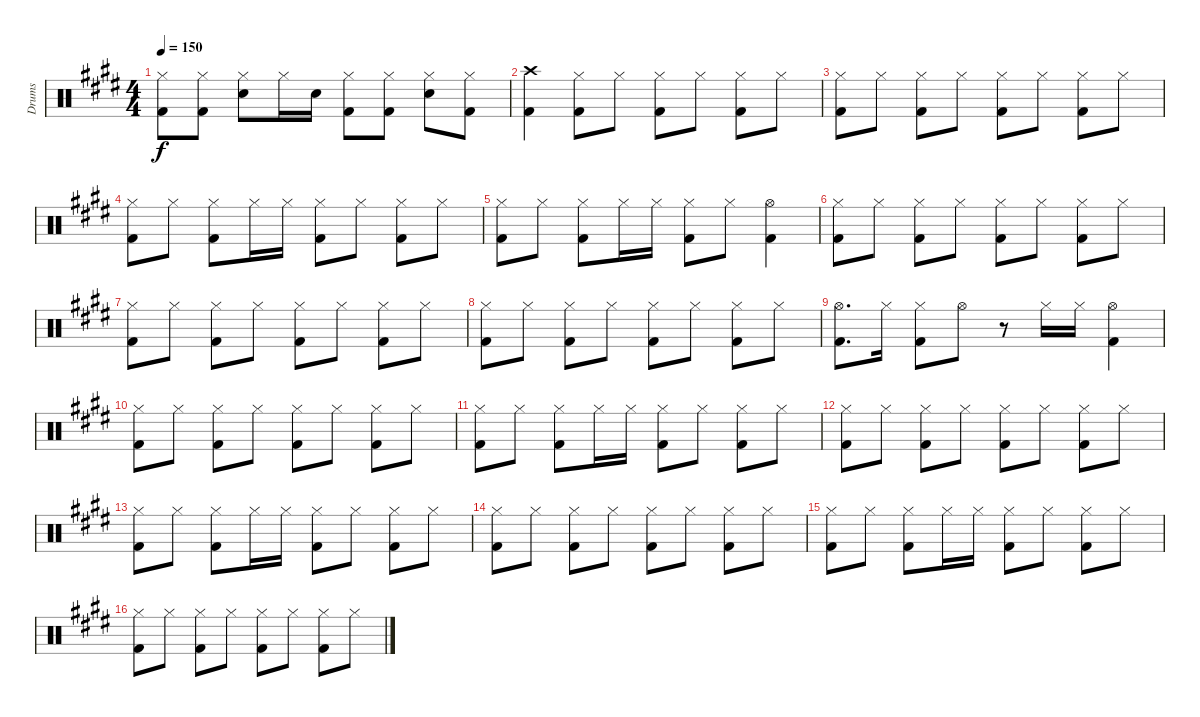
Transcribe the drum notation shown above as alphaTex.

\track ("Drums" "Drums") {instrument percussion}
\staff {score}
\articulation defaults
\ts (4 4)
\tempo 150
\clef neutral
\ks e
("Hi-Hat (closed)" "Kick (hit) 2").8{dy f} ("Hi-Hat (closed)" "Kick (hit) 2").8 ("Hi-Hat (closed)" "Snare (hit) 2").8 "Hi-Hat (closed)".16 "Snare (hit) 2".16 ("Hi-Hat (closed)" "Kick (hit) 2").8 ("Hi-Hat (closed)" "Kick (hit) 2").8 ("Hi-Hat (closed)" "Snare (hit) 2").8 ("Hi-Hat (closed)" "Kick (hit) 2").8 |
("Crash high (hit)" "Kick (hit) 2").4 ("Hi-Hat (closed)" "Kick (hit) 2").8 "Hi-Hat (closed)".8 ("Hi-Hat (closed)" "Kick (hit) 2").8 "Hi-Hat (closed)".8 ("Hi-Hat (closed)" "Kick (hit) 2").8 "Hi-Hat (closed)".8 |
("Hi-Hat (closed)" "Kick (hit) 2").8 "Hi-Hat (closed)".8 ("Hi-Hat (closed)" "Kick (hit) 2").8 "Hi-Hat (closed)".8 ("Hi-Hat (closed)" "Kick (hit) 2").8 "Hi-Hat (closed)".8 ("Hi-Hat (closed)" "Kick (hit) 2").8 "Hi-Hat (closed)".8 |
("Hi-Hat (closed)" "Kick (hit) 2").8 "Hi-Hat (closed)".8 ("Hi-Hat (closed)" "Kick (hit) 2").8 "Hi-Hat (closed)".16 "Hi-Hat (closed)".16 ("Hi-Hat (closed)" "Kick (hit) 2").8 "Hi-Hat (closed)".8 ("Hi-Hat (closed)" "Kick (hit) 2").8 "Hi-Hat (closed)".8 |
("Hi-Hat (closed)" "Kick (hit) 2").8 "Hi-Hat (closed)".8 ("Hi-Hat (closed)" "Kick (hit) 2").8 "Hi-Hat (closed)".16 "Hi-Hat (closed)".16 ("Hi-Hat (closed)" "Kick (hit) 2").8 "Hi-Hat (closed)".8 ("Hi-Hat (open)" "Kick (hit) 2").4 |
("Hi-Hat (closed)" "Kick (hit) 2").8 "Hi-Hat (closed)".8 ("Hi-Hat (closed)" "Kick (hit) 2").8 "Hi-Hat (closed)".8 ("Hi-Hat (closed)" "Kick (hit) 2").8 "Hi-Hat (closed)".8 ("Hi-Hat (closed)" "Kick (hit) 2").8 "Hi-Hat (closed)".8 |
("Hi-Hat (closed)" "Kick (hit) 2").8 "Hi-Hat (closed)".8 ("Hi-Hat (closed)" "Kick (hit) 2").8 "Hi-Hat (closed)".8 ("Hi-Hat (closed)" "Kick (hit) 2").8 "Hi-Hat (closed)".8 ("Hi-Hat (closed)" "Kick (hit) 2").8 "Hi-Hat (closed)".8 |
("Hi-Hat (closed)" "Kick (hit) 2").8 "Hi-Hat (closed)".8 ("Hi-Hat (closed)" "Kick (hit) 2").8 "Hi-Hat (closed)".8 ("Hi-Hat (closed)" "Kick (hit) 2").8 "Hi-Hat (closed)".8 ("Hi-Hat (closed)" "Kick (hit) 2").8 "Hi-Hat (closed)".8 |
("Hi-Hat (open)" "Kick (hit) 2").8{d} "Hi-Hat (closed)".16 ("Hi-Hat (closed)" "Kick (hit) 2").8 "Hi-Hat (open)".8 r.8 "Hi-Hat (closed)".16 "Hi-Hat (closed)".16 ("Hi-Hat (open)" "Kick (hit) 2").4 |
("Hi-Hat (closed)" "Kick (hit) 2").8 "Hi-Hat (closed)".8 ("Hi-Hat (closed)" "Kick (hit) 2").8 "Hi-Hat (closed)".8 ("Hi-Hat (closed)" "Kick (hit) 2").8 "Hi-Hat (closed)".8 ("Hi-Hat (closed)" "Kick (hit) 2").8 "Hi-Hat (closed)".8 |
("Hi-Hat (closed)" "Kick (hit) 2").8 "Hi-Hat (closed)".8 ("Hi-Hat (closed)" "Kick (hit) 2").8 "Hi-Hat (closed)".16 "Hi-Hat (closed)".16 ("Hi-Hat (closed)" "Kick (hit) 2").8 "Hi-Hat (closed)".8 ("Hi-Hat (closed)" "Kick (hit) 2").8 "Hi-Hat (closed)".8 |
("Hi-Hat (closed)" "Kick (hit) 2").8 "Hi-Hat (closed)".8 ("Hi-Hat (closed)" "Kick (hit) 2").8 "Hi-Hat (closed)".8 ("Hi-Hat (closed)" "Kick (hit) 2").8 "Hi-Hat (closed)".8 ("Hi-Hat (closed)" "Kick (hit) 2").8 "Hi-Hat (closed)".8 |
("Hi-Hat (closed)" "Kick (hit) 2").8 "Hi-Hat (closed)".8 ("Hi-Hat (closed)" "Kick (hit) 2").8 "Hi-Hat (closed)".16 "Hi-Hat (closed)".16 ("Hi-Hat (closed)" "Kick (hit) 2").8 "Hi-Hat (closed)".8 ("Hi-Hat (closed)" "Kick (hit) 2").8 "Hi-Hat (closed)".8 |
("Hi-Hat (closed)" "Kick (hit) 2").8 "Hi-Hat (closed)".8 ("Hi-Hat (closed)" "Kick (hit) 2").8 "Hi-Hat (closed)".8 ("Hi-Hat (closed)" "Kick (hit) 2").8 "Hi-Hat (closed)".8 ("Hi-Hat (closed)" "Kick (hit) 2").8 "Hi-Hat (closed)".8 |
("Hi-Hat (closed)" "Kick (hit) 2").8 "Hi-Hat (closed)".8 ("Hi-Hat (closed)" "Kick (hit) 2").8 "Hi-Hat (closed)".16 "Hi-Hat (closed)".16 ("Hi-Hat (closed)" "Kick (hit) 2").8 "Hi-Hat (closed)".8 ("Hi-Hat (closed)" "Kick (hit) 2").8 "Hi-Hat (closed)".8 |
("Hi-Hat (closed)" "Kick (hit) 2").8 "Hi-Hat (closed)".8 ("Hi-Hat (closed)" "Kick (hit) 2").8 "Hi-Hat (closed)".8 ("Hi-Hat (closed)" "Kick (hit) 2").8 "Hi-Hat (closed)".8 ("Hi-Hat (closed)" "Kick (hit) 2").8 "Hi-Hat (closed)".8
